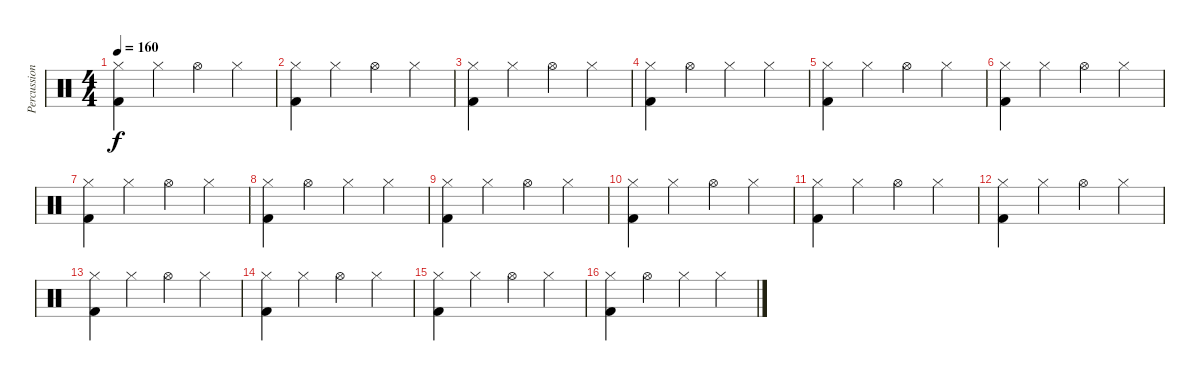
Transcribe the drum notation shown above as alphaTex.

\track ("Percussion" "Percussion") {instrument percussion}
\staff {score}
\articulation defaults
\ts (4 4)
\tempo 160
\clef neutral
\ks c
("Hi-Hat (closed)" "Kick (hit) 2").4{dy f} "Hi-Hat (closed)".4 "Hi-Hat (open)".4 "Hi-Hat (closed)".4 |
("Hi-Hat (closed)" "Kick (hit) 2").4 "Hi-Hat (closed)".4 "Hi-Hat (open)".4 "Hi-Hat (closed)".4 |
("Hi-Hat (closed)" "Kick (hit) 2").4 "Hi-Hat (closed)".4 "Hi-Hat (open)".4 "Hi-Hat (closed)".4 |
("Hi-Hat (closed)" "Kick (hit) 2").4 "Hi-Hat (open)".4 "Hi-Hat (closed)".4 "Hi-Hat (closed)".4 |
("Hi-Hat (closed)" "Kick (hit) 2").4 "Hi-Hat (closed)".4 "Hi-Hat (open)".4 "Hi-Hat (closed)".4 |
("Hi-Hat (closed)" "Kick (hit) 2").4 "Hi-Hat (closed)".4 "Hi-Hat (open)".4 "Hi-Hat (closed)".4 |
("Hi-Hat (closed)" "Kick (hit) 2").4 "Hi-Hat (closed)".4 "Hi-Hat (open)".4 "Hi-Hat (closed)".4 |
("Hi-Hat (closed)" "Kick (hit) 2").4 "Hi-Hat (open)".4 "Hi-Hat (closed)".4 "Hi-Hat (closed)".4 |
("Hi-Hat (closed)" "Kick (hit) 2").4 "Hi-Hat (closed)".4 "Hi-Hat (open)".4 "Hi-Hat (closed)".4 |
("Hi-Hat (closed)" "Kick (hit) 2").4 "Hi-Hat (closed)".4 "Hi-Hat (open)".4 "Hi-Hat (closed)".4 |
("Hi-Hat (closed)" "Kick (hit) 2").4 "Hi-Hat (closed)".4 "Hi-Hat (open)".4 "Hi-Hat (closed)".4 |
("Hi-Hat (closed)" "Kick (hit) 2").4 "Hi-Hat (closed)".4 "Hi-Hat (open)".4 "Hi-Hat (closed)".4 |
("Hi-Hat (closed)" "Kick (hit) 2").4 "Hi-Hat (closed)".4 "Hi-Hat (open)".4 "Hi-Hat (closed)".4 |
("Hi-Hat (closed)" "Kick (hit) 2").4 "Hi-Hat (closed)".4 "Hi-Hat (open)".4 "Hi-Hat (closed)".4 |
("Hi-Hat (closed)" "Kick (hit) 2").4 "Hi-Hat (closed)".4 "Hi-Hat (open)".4 "Hi-Hat (closed)".4 |
("Hi-Hat (closed)" "Kick (hit) 2").4 "Hi-Hat (open)".4 "Hi-Hat (closed)".4 "Hi-Hat (closed)".4
